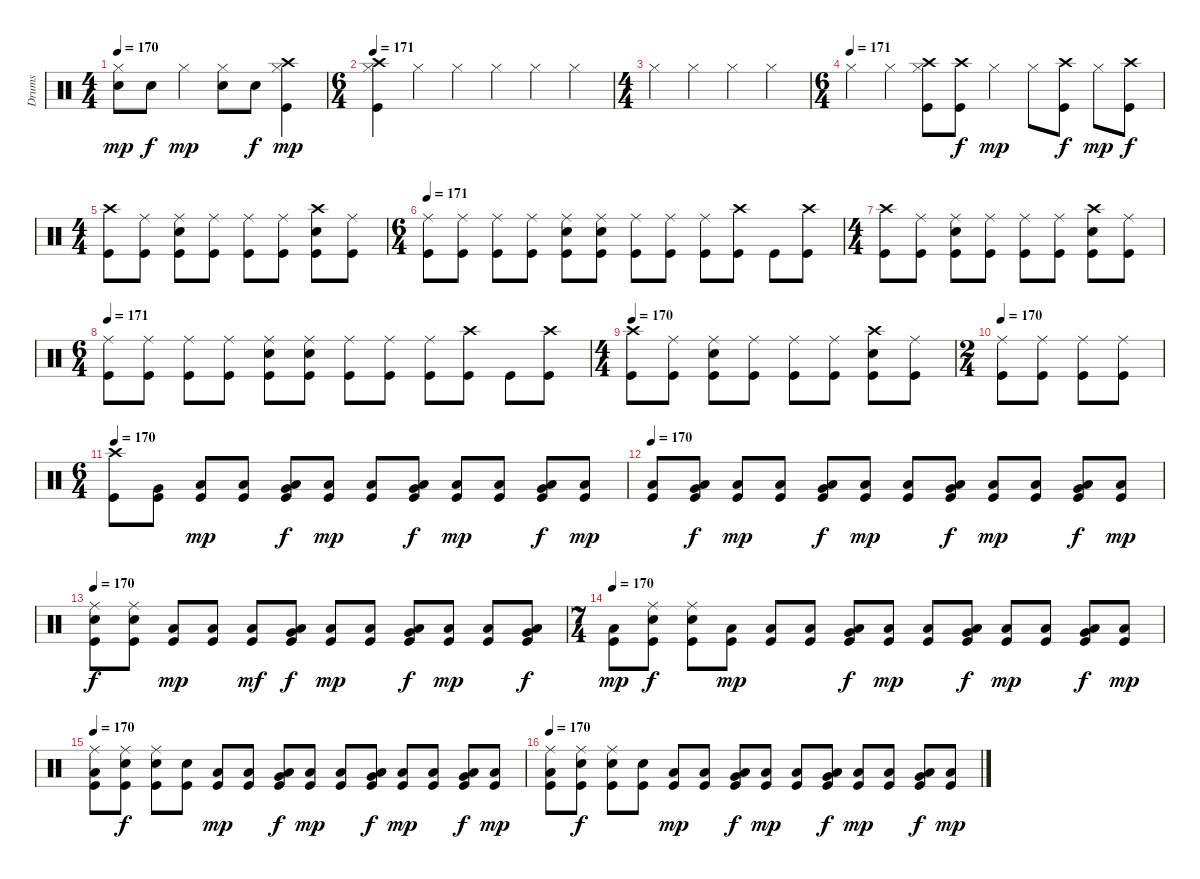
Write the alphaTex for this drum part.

\track ("Drums" "Drums") {instrument percussion}
\staff {score}
\articulation defaults
\ts (4 4)
\tempo 170
\clef neutral
\ks c
("Hi-Hat (closed)" "Electric Snare (hit)").8{dy mp} "Electric Snare (hit)".8{dy f} "Hi-Hat (closed)".4{dy mp} ("Hi-Hat (closed)" "Electric Snare (hit)").8 "Electric Snare (hit)".8{dy f} ("Crash high (hit)" "Hi-Hat (closed)" "Kick (hit)").4{dy mp} |
\ts (6 4)
\tempo 171
("Crash high (hit)" "Hi-Hat (closed)" "Kick (hit)").4 "Hi-Hat (closed)".4 "Hi-Hat (closed)".4 "Hi-Hat (closed)".4 "Hi-Hat (closed)".4 "Hi-Hat (closed)".4 |
\ts (4 4)
"Hi-Hat (closed)".4 "Hi-Hat (closed)".4 "Hi-Hat (closed)".4 "Hi-Hat (closed)".4 |
\ts (6 4)
\tempo (171)
"Hi-Hat (closed)".4 "Hi-Hat (closed)".4 ("Crash high (hit)" "Hi-Hat (closed)" "Kick (hit)").8 ("Crash high (hit)" "Kick (hit)").8{dy f} "Hi-Hat (closed)".4{dy mp} "Hi-Hat (closed)".8 ("Crash high (hit)" "Kick (hit)").8{dy f} "Hi-Hat (closed)".8{dy mp} ("Crash high (hit)" "Kick (hit)").8{dy f} |
\ts (4 4)
("Crash high (hit)" "Kick (hit)").8 ("Ride (middle)" "Kick (hit)").8 ("Ride (middle)" "Electric Snare (hit)" "Kick (hit)").8 ("Ride (middle)" "Kick (hit)").8 ("Ride (middle)" "Kick (hit)").8 ("Ride (middle)" "Kick (hit)").8 ("Crash high (hit)" "Electric Snare (hit)" "Kick (hit)").8 ("Ride (middle)" "Kick (hit)").8 |
\ts (6 4)
\tempo 170
\tempo 171
("Ride (middle)" "Kick (hit)").8 ("Ride (middle)" "Kick (hit)").8 ("Ride (middle)" "Kick (hit)").8 ("Ride (middle)" "Kick (hit)").8 ("Ride (middle)" "Electric Snare (hit)" "Kick (hit)").8 ("Ride (middle)" "Electric Snare (hit)" "Kick (hit)").8 ("Ride (middle)" "Kick (hit)").8 ("Ride (middle)" "Kick (hit)").8 ("Ride (middle)" "Kick (hit)").8 ("Crash high (hit)" "Kick (hit)").8 "Kick (hit)".8 ("Crash high (hit)" "Kick (hit)").8 |
\ts (4 4)
("Crash high (hit)" "Kick (hit)").8 ("Ride (middle)" "Kick (hit)").8 ("Ride (middle)" "Electric Snare (hit)" "Kick (hit)").8 ("Ride (middle)" "Kick (hit)").8 ("Ride (middle)" "Kick (hit)").8 ("Ride (middle)" "Kick (hit)").8 ("Crash high (hit)" "Electric Snare (hit)" "Kick (hit)").8 ("Ride (middle)" "Kick (hit)").8 |
\ts (6 4)
\tempo 170
\tempo 171
("Ride (middle)" "Kick (hit)").8 ("Ride (middle)" "Kick (hit)").8 ("Ride (middle)" "Kick (hit)").8 ("Ride (middle)" "Kick (hit)").8 ("Ride (middle)" "Electric Snare (hit)" "Kick (hit)").8 ("Ride (middle)" "Electric Snare (hit)" "Kick (hit)").8 ("Ride (middle)" "Kick (hit)").8 ("Ride (middle)" "Kick (hit)").8 ("Ride (middle)" "Kick (hit)").8 ("Crash high (hit)" "Kick (hit)").8 "Kick (hit)".8 ("Crash high (hit)" "Kick (hit)").8 |
\ts (4 4)
\tempo 170
("Crash high (hit)" "Kick (hit)").8 ("Ride (middle)" "Kick (hit)").8 ("Ride (middle)" "Electric Snare (hit)" "Kick (hit)").8 ("Ride (middle)" "Kick (hit)").8 ("Ride (middle)" "Kick (hit)").8 ("Ride (middle)" "Kick (hit)").8 ("Crash high (hit)" "Electric Snare (hit)" "Kick (hit)").8 ("Ride (middle)" "Kick (hit)").8 |
\ts (2 4)
\tempo 170
("Ride (middle)" "Kick (hit)").8 ("Ride (middle)" "Kick (hit)").8 ("Ride (middle)" "Kick (hit)").8 ("Ride (middle)" "Kick (hit)").8 |
\ts (6 4)
\tempo 170
("Crash high (hit)" "Kick (hit)").8 ("Very Low Tom (hit)" "Kick (hit)").8 ("Low Floor Tom (hit)" "Kick (hit)").8{dy mp} ("Low Floor Tom (hit)" "Kick (hit)").8 ("Very Low Tom (hit)" "Low Floor Tom (hit)" "Kick (hit)").8{dy f} ("Low Floor Tom (hit)" "Kick (hit)").8{dy mp} ("Low Floor Tom (hit)" "Kick (hit)").8 ("Very Low Tom (hit)" "Low Floor Tom (hit)" "Kick (hit)").8{dy f} ("Low Floor Tom (hit)" "Kick (hit)").8{dy mp} ("Low Floor Tom (hit)" "Kick (hit)").8 ("Very Low Tom (hit)" "Low Floor Tom (hit)" "Kick (hit)").8{dy f} ("Low Floor Tom (hit)" "Kick (hit)").8{dy mp} |
\tempo 170
("Low Floor Tom (hit)" "Kick (hit)").8 ("Very Low Tom (hit)" "Low Floor Tom (hit)" "Kick (hit)").8{dy f} ("Low Floor Tom (hit)" "Kick (hit)").8{dy mp} ("Low Floor Tom (hit)" "Kick (hit)").8 ("Very Low Tom (hit)" "Low Floor Tom (hit)" "Kick (hit)").8{dy f} ("Low Floor Tom (hit)" "Kick (hit)").8{dy mp} ("Low Floor Tom (hit)" "Kick (hit)").8 ("Very Low Tom (hit)" "Low Floor Tom (hit)" "Kick (hit)").8{dy f} ("Low Floor Tom (hit)" "Kick (hit)").8{dy mp} ("Low Floor Tom (hit)" "Kick (hit)").8 ("Very Low Tom (hit)" "Low Floor Tom (hit)" "Kick (hit)").8{dy f} ("Low Floor Tom (hit)" "Kick (hit)").8{dy mp} |
\tempo 170
("Ride (middle)" "Electric Snare (hit)" "Kick (hit)").8{dy f} ("Ride (middle)" "Electric Snare (hit)" "Kick (hit)").8 ("Low Floor Tom (hit)" "Kick (hit)").8{dy mp} ("Low Floor Tom (hit)" "Kick (hit)").8 ("Low Floor Tom (hit)" "Kick (hit)").8{dy mf} ("Very Low Tom (hit)" "Low Floor Tom (hit)" "Kick (hit)").8{dy f} ("Low Floor Tom (hit)" "Kick (hit)").8{dy mp} ("Low Floor Tom (hit)" "Kick (hit)").8 ("Very Low Tom (hit)" "Low Floor Tom (hit)" "Kick (hit)").8{dy f} ("Low Floor Tom (hit)" "Kick (hit)").8{dy mp} ("Low Floor Tom (hit)" "Kick (hit)").8 ("Very Low Tom (hit)" "Low Floor Tom (hit)" "Kick (hit)").8{dy f} |
\ts (7 4)
\tempo 170
("Low Floor Tom (hit)" "Kick (hit)").8{dy mp} ("Ride (middle)" "Electric Snare (hit)" "Kick (hit)").8{dy f} ("Ride (middle)" "Electric Snare (hit)" "Kick (hit)").8 ("Low Floor Tom (hit)" "Kick (hit)").8{dy mp} ("Low Floor Tom (hit)" "Kick (hit)").8 ("Low Floor Tom (hit)" "Kick (hit)").8 ("Very Low Tom (hit)" "Low Floor Tom (hit)" "Kick (hit)").8{dy f} ("Low Floor Tom (hit)" "Kick (hit)").8{dy mp} ("Low Floor Tom (hit)" "Kick (hit)").8 ("Very Low Tom (hit)" "Low Floor Tom (hit)" "Kick (hit)").8{dy f} ("Low Floor Tom (hit)" "Kick (hit)").8{dy mp} ("Low Floor Tom (hit)" "Kick (hit)").8 ("Very Low Tom (hit)" "Low Floor Tom (hit)" "Kick (hit)").8{dy f} ("Low Floor Tom (hit)" "Kick (hit)").8{dy mp} |
\tempo 170
("Ride (middle)" "Low Floor Tom (hit)" "Kick (hit)").8 ("Ride (middle)" "Electric Snare (hit)" "Kick (hit)").8{dy f} ("Ride (middle)" "Electric Snare (hit)" "Kick (hit)").8 ("Electric Snare (hit)" "Kick (hit)").8 ("Low Floor Tom (hit)" "Kick (hit)").8{dy mp} ("Low Floor Tom (hit)" "Kick (hit)").8 ("Very Low Tom (hit)" "Low Floor Tom (hit)" "Kick (hit)").8{dy f} ("Low Floor Tom (hit)" "Kick (hit)").8{dy mp} ("Low Floor Tom (hit)" "Kick (hit)").8 ("Very Low Tom (hit)" "Low Floor Tom (hit)" "Kick (hit)").8{dy f} ("Low Floor Tom (hit)" "Kick (hit)").8{dy mp} ("Low Floor Tom (hit)" "Kick (hit)").8 ("Very Low Tom (hit)" "Low Floor Tom (hit)" "Kick (hit)").8{dy f} ("Low Floor Tom (hit)" "Kick (hit)").8{dy mp} |
\tempo 170
("Ride (middle)" "Low Floor Tom (hit)" "Kick (hit)").8 ("Ride (middle)" "Electric Snare (hit)" "Kick (hit)").8{dy f} ("Ride (middle)" "Electric Snare (hit)" "Kick (hit)").8 ("Electric Snare (hit)" "Kick (hit)").8 ("Low Floor Tom (hit)" "Kick (hit)").8{dy mp} ("Low Floor Tom (hit)" "Kick (hit)").8 ("Very Low Tom (hit)" "Low Floor Tom (hit)" "Kick (hit)").8{dy f} ("Low Floor Tom (hit)" "Kick (hit)").8{dy mp} ("Low Floor Tom (hit)" "Kick (hit)").8 ("Very Low Tom (hit)" "Low Floor Tom (hit)" "Kick (hit)").8{dy f} ("Low Floor Tom (hit)" "Kick (hit)").8{dy mp} ("Low Floor Tom (hit)" "Kick (hit)").8 ("Very Low Tom (hit)" "Low Floor Tom (hit)" "Kick (hit)").8{dy f} ("Low Floor Tom (hit)" "Kick (hit)").8{dy mp}
